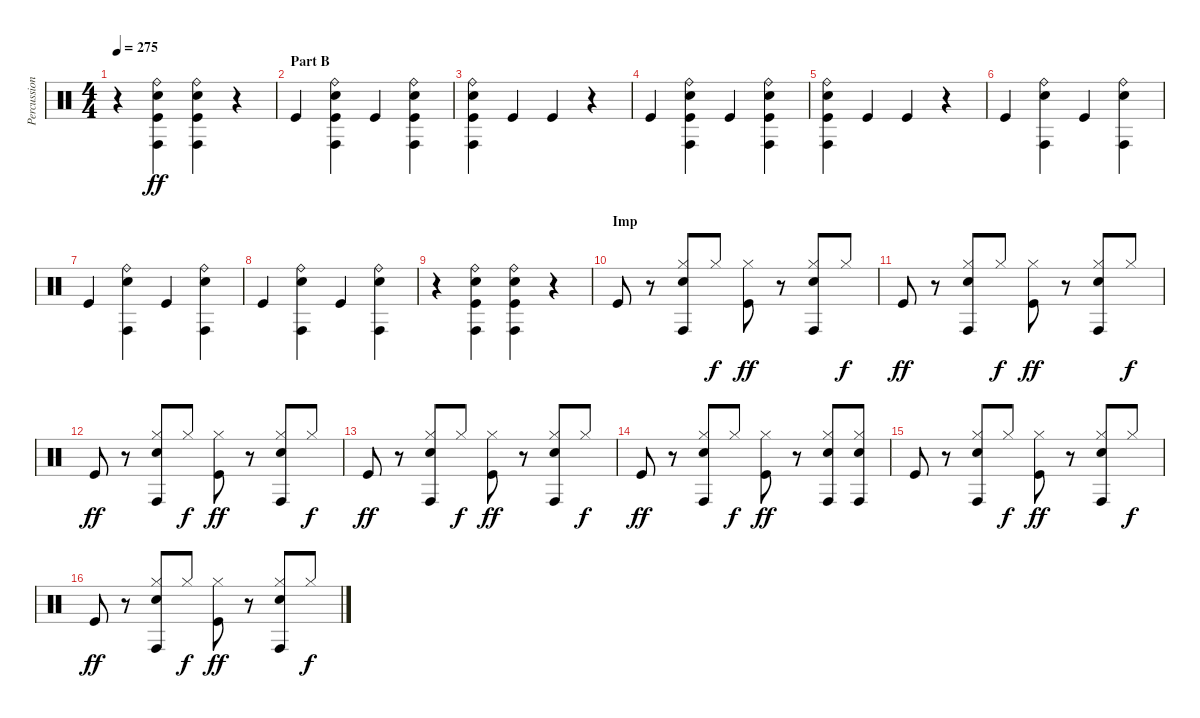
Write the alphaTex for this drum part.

\track ("Percussion" "Percussion") {instrument percussion}
\staff {score}
\articulation defaults
\ts (4 4)
\tempo 275
\clef neutral
\ks c
r.4{dy ff} ("Ride (bell)" "Conga high (hit)" "Electric Snare (hit)" "Kick (hit)").4 ("Ride (bell)" "Conga high (hit)" "Electric Snare (hit)" "Kick (hit)").4 r.4 |
\section ("" "Part B")
"Kick (hit)".4 ("Ride (bell)" "Conga high (hit)" "Electric Snare (hit)" "Kick (hit)").4 "Kick (hit)".4 ("Ride (bell)" "Conga high (hit)" "Electric Snare (hit)" "Kick (hit)").4 |
("Ride (bell)" "Conga high (hit)" "Electric Snare (hit)" "Kick (hit)").4 "Kick (hit)".4 "Kick (hit)".4 r.4 |
"Kick (hit)".4 ("Ride (bell)" "Conga high (hit)" "Electric Snare (hit)" "Kick (hit)").4 "Kick (hit)".4 ("Ride (bell)" "Conga high (hit)" "Electric Snare (hit)" "Kick (hit)").4 |
("Ride (bell)" "Conga high (hit)" "Electric Snare (hit)" "Kick (hit)").4 "Kick (hit)".4 "Kick (hit)".4 r.4 |
"Kick (hit)".4 ("Ride (bell)" "Conga high (hit)" "Electric Snare (hit)").4 "Kick (hit)".4 ("Ride (bell)" "Conga high (hit)" "Electric Snare (hit)").4 |
"Kick (hit)".4 ("Ride (bell)" "Conga high (hit)" "Electric Snare (hit)").4 "Kick (hit)".4 ("Ride (bell)" "Conga high (hit)" "Electric Snare (hit)").4 |
"Kick (hit)".4 ("Ride (bell)" "Conga high (hit)" "Electric Snare (hit)").4 "Kick (hit)".4 ("Ride (bell)" "Conga high (hit)" "Electric Snare (hit)").4 |
r.4 ("Ride (bell)" "Conga high (hit)" "Electric Snare (hit)" "Kick (hit)").4 ("Ride (bell)" "Conga high (hit)" "Electric Snare (hit)" "Kick (hit)").4 r.4 |
\section ("" "Imp")
"Kick (hit)".8 r.8 ("Hi-Hat (closed)" "Conga high (hit)" "Electric Snare (hit)").8 "Hi-Hat (closed)".8{dy f} ("Hi-Hat (closed)" "Kick (hit)").8{dy ff} r.8 ("Hi-Hat (closed)" "Conga high (hit)" "Electric Snare (hit)").8 "Hi-Hat (closed)".8{dy f} |
"Kick (hit)".8{dy ff} r.8 ("Hi-Hat (closed)" "Conga high (hit)" "Electric Snare (hit)").8 "Hi-Hat (closed)".8{dy f} ("Hi-Hat (closed)" "Kick (hit)").8{dy ff} r.8 ("Hi-Hat (closed)" "Conga high (hit)" "Electric Snare (hit)").8 "Hi-Hat (closed)".8{dy f} |
"Kick (hit)".8{dy ff} r.8 ("Hi-Hat (closed)" "Conga high (hit)" "Electric Snare (hit)").8 "Hi-Hat (closed)".8{dy f} ("Hi-Hat (closed)" "Kick (hit)").8{dy ff} r.8 ("Hi-Hat (closed)" "Conga high (hit)" "Electric Snare (hit)").8 "Hi-Hat (closed)".8{dy f} |
"Kick (hit)".8{dy ff} r.8 ("Hi-Hat (closed)" "Conga high (hit)" "Electric Snare (hit)").8 "Hi-Hat (closed)".8{dy f} ("Hi-Hat (closed)" "Kick (hit)").8{dy ff} r.8 ("Hi-Hat (closed)" "Conga high (hit)" "Electric Snare (hit)").8 "Hi-Hat (closed)".8{dy f} |
"Kick (hit)".8{dy ff} r.8 ("Hi-Hat (closed)" "Conga high (hit)" "Electric Snare (hit)").8 "Hi-Hat (closed)".8{dy f} ("Hi-Hat (closed)" "Kick (hit)").8{dy ff} r.8 ("Hi-Hat (closed)" "Conga high (hit)" "Electric Snare (hit)").8 ("Hi-Hat (closed)" "Conga high (hit)" "Electric Snare (hit)").8 |
"Kick (hit)".8 r.8 ("Hi-Hat (closed)" "Conga high (hit)" "Electric Snare (hit)").8 "Hi-Hat (closed)".8{dy f} ("Hi-Hat (closed)" "Kick (hit)").8{dy ff} r.8 ("Hi-Hat (closed)" "Conga high (hit)" "Electric Snare (hit)").8 "Hi-Hat (closed)".8{dy f} |
"Kick (hit)".8{dy ff} r.8 ("Hi-Hat (closed)" "Conga high (hit)" "Electric Snare (hit)").8 "Hi-Hat (closed)".8{dy f} ("Hi-Hat (closed)" "Kick (hit)").8{dy ff} r.8 ("Hi-Hat (closed)" "Conga high (hit)" "Electric Snare (hit)").8 "Hi-Hat (closed)".8{dy f}
